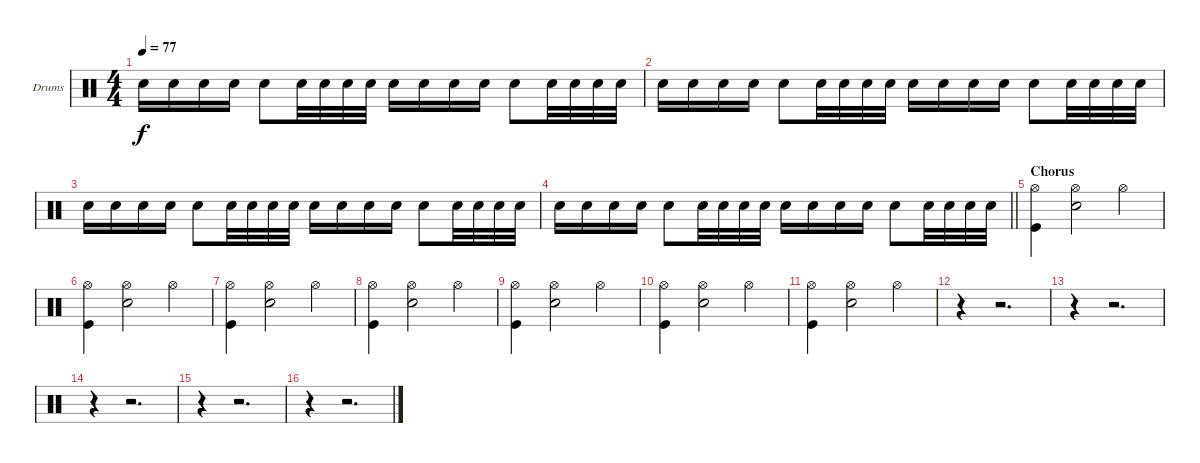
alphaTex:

\bracketExtendMode groupsimilarinstruments
\firstSystemTrackNameOrientation horizontal
\otherSystemsTrackNameOrientation horizontal
\track ("Drumkit" "Drums") {instrument percussion}
\staff {score}
\articulation defaults
\ts (4 4)
\tempo 77
\clef neutral
\ks c "Snare (hit) 2".16{dy f} "Snare (hit) 2".16 "Snare (hit) 2".16 "Snare (hit) 2".16 "Snare (hit) 2".8 "Snare (hit) 2".32 "Snare (hit) 2".32 "Snare (hit) 2".32 "Snare (hit) 2".32 "Snare (hit) 2".16 "Snare (hit) 2".16 "Snare (hit) 2".16 "Snare (hit) 2".16 "Snare (hit) 2".8 "Snare (hit) 2".32 "Snare (hit) 2".32 "Snare (hit) 2".32 "Snare (hit) 2".32
|
"Snare (hit) 2".16 "Snare (hit) 2".16 "Snare (hit) 2".16 "Snare (hit) 2".16 "Snare (hit) 2".8 "Snare (hit) 2".32 "Snare (hit) 2".32 "Snare (hit) 2".32 "Snare (hit) 2".32 "Snare (hit) 2".16 "Snare (hit) 2".16 "Snare (hit) 2".16 "Snare (hit) 2".16 "Snare (hit) 2".8 "Snare (hit) 2".32 "Snare (hit) 2".32 "Snare (hit) 2".32 "Snare (hit) 2".32 |
"Snare (hit) 2".16 "Snare (hit) 2".16 "Snare (hit) 2".16 "Snare (hit) 2".16 "Snare (hit) 2".8 "Snare (hit) 2".32 "Snare (hit) 2".32 "Snare (hit) 2".32 "Snare (hit) 2".32 "Snare (hit) 2".16 "Snare (hit) 2".16 "Snare (hit) 2".16 "Snare (hit) 2".16 "Snare (hit) 2".8 "Snare (hit) 2".32 "Snare (hit) 2".32 "Snare (hit) 2".32 "Snare (hit) 2".32 |
\barLineRight lightlight "Snare (hit) 2".16 "Snare (hit) 2".16 "Snare (hit) 2".16 "Snare (hit) 2".16 "Snare (hit) 2".8 "Snare (hit) 2".32 "Snare (hit) 2".32 "Snare (hit) 2".32 "Snare (hit) 2".32 "Snare (hit) 2".16 "Snare (hit) 2".16 "Snare (hit) 2".16 "Snare (hit) 2".16 "Snare (hit) 2".8 "Snare (hit) 2".32 "Snare (hit) 2".32 "Snare (hit) 2".32 "Snare (hit) 2".32
|
\section ("" "Chorus")
("Hi-Hat (open)" "Kick (hit)").4 ("Hi-Hat (open)" "Snare (hit) 2").2 "Hi-Hat (open)".4 |
("Hi-Hat (open)" "Kick (hit)").4 ("Hi-Hat (open)" "Snare (hit) 2").2 "Hi-Hat (open)".4 |
("Hi-Hat (open)" "Kick (hit)").4 ("Hi-Hat (open)" "Snare (hit) 2").2 "Hi-Hat (open)".4 |
("Hi-Hat (open)" "Kick (hit)").4 ("Hi-Hat (open)" "Snare (hit) 2").2 "Hi-Hat (open)".4 |
("Hi-Hat (open)" "Kick (hit)").4 ("Hi-Hat (open)" "Snare (hit) 2").2 "Hi-Hat (open)".4 |
("Hi-Hat (open)" "Kick (hit)").4 ("Hi-Hat (open)" "Snare (hit) 2").2 "Hi-Hat (open)".4 |
("Hi-Hat (open)" "Kick (hit)").4 ("Hi-Hat (open)" "Snare (hit) 2").2 "Hi-Hat (open)".4 |
r.4 r.2{d} |
r.4 r.2{d} |
\beaming (8 2 2 4)
r.4 r.2{d} |
\beaming (8 2 2 2 2)
r.4 r.2{d} |
\beaming (8 2 2 4)
r.4 r.2{d}
